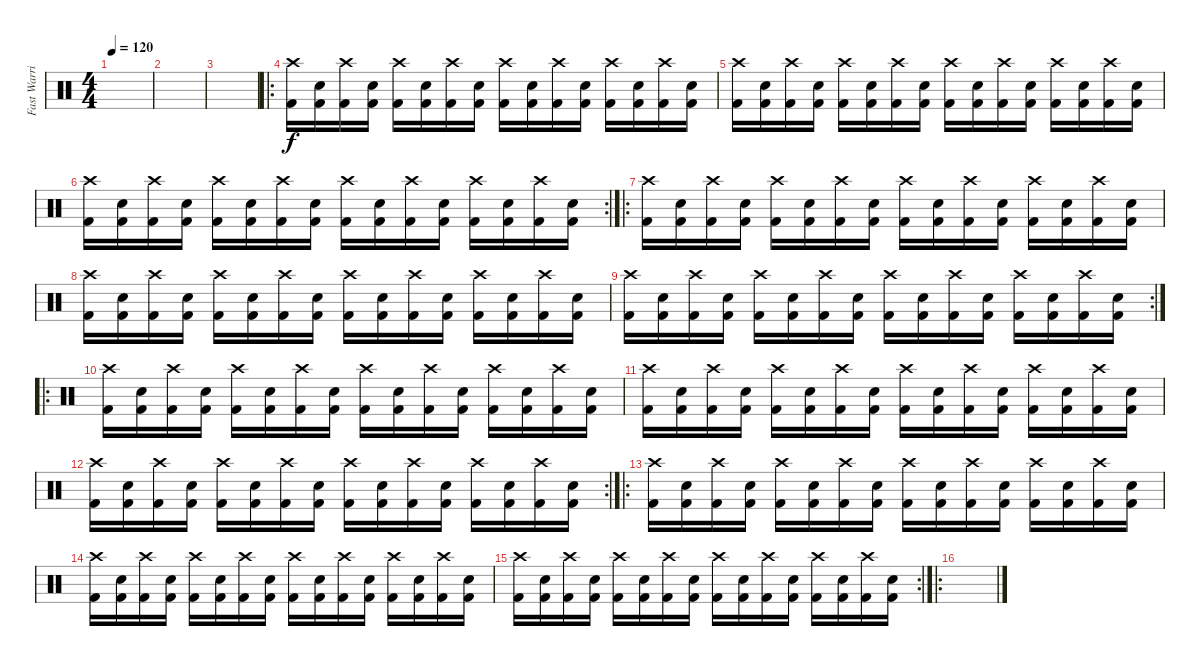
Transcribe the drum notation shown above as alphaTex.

\track ("Fast Warrior" "Fast Warri") {instrument percussion}
\staff {score}
\articulation defaults
\ts (4 4)
\tempo 120
\clef neutral
\ks c
|
|
|
\ro
("Kick (hit) 2" "Crash high (hit)").16 ("Kick (hit) 2" "Electric Snare (hit)").16 ("Kick (hit) 2" "Crash high (hit)").16 ("Kick (hit) 2" "Electric Snare (hit)").16 ("Kick (hit) 2" "Crash high (hit)").16 ("Kick (hit) 2" "Electric Snare (hit)").16 ("Kick (hit) 2" "Crash high (hit)").16 ("Kick (hit) 2" "Electric Snare (hit)").16 ("Kick (hit) 2" "Crash high (hit)").16 ("Kick (hit) 2" "Electric Snare (hit)").16 ("Kick (hit) 2" "Crash high (hit)").16 ("Kick (hit) 2" "Electric Snare (hit)").16 ("Kick (hit) 2" "Crash high (hit)").16 ("Kick (hit) 2" "Electric Snare (hit)").16 ("Kick (hit) 2" "Crash high (hit)").16 ("Kick (hit) 2" "Electric Snare (hit)").16 |
("Kick (hit) 2" "Crash high (hit)").16 ("Kick (hit) 2" "Electric Snare (hit)").16 ("Kick (hit) 2" "Crash high (hit)").16 ("Kick (hit) 2" "Electric Snare (hit)").16 ("Kick (hit) 2" "Crash high (hit)").16 ("Kick (hit) 2" "Electric Snare (hit)").16 ("Kick (hit) 2" "Crash high (hit)").16 ("Kick (hit) 2" "Electric Snare (hit)").16 ("Kick (hit) 2" "Crash high (hit)").16 ("Kick (hit) 2" "Electric Snare (hit)").16 ("Kick (hit) 2" "Crash high (hit)").16 ("Kick (hit) 2" "Electric Snare (hit)").16 ("Kick (hit) 2" "Crash high (hit)").16 ("Kick (hit) 2" "Electric Snare (hit)").16 ("Kick (hit) 2" "Crash high (hit)").16 ("Kick (hit) 2" "Electric Snare (hit)").16 |
\rc 2
("Kick (hit) 2" "Crash high (hit)").16 ("Kick (hit) 2" "Electric Snare (hit)").16 ("Kick (hit) 2" "Crash high (hit)").16 ("Kick (hit) 2" "Electric Snare (hit)").16 ("Kick (hit) 2" "Crash high (hit)").16 ("Kick (hit) 2" "Electric Snare (hit)").16 ("Kick (hit) 2" "Crash high (hit)").16 ("Kick (hit) 2" "Electric Snare (hit)").16 ("Kick (hit) 2" "Crash high (hit)").16 ("Kick (hit) 2" "Electric Snare (hit)").16 ("Kick (hit) 2" "Crash high (hit)").16 ("Kick (hit) 2" "Electric Snare (hit)").16 ("Kick (hit) 2" "Crash high (hit)").16 ("Kick (hit) 2" "Electric Snare (hit)").16 ("Kick (hit) 2" "Crash high (hit)").16 ("Kick (hit) 2" "Electric Snare (hit)").16 |
\ro
("Kick (hit) 2" "Crash high (hit)").16 ("Kick (hit) 2" "Electric Snare (hit)").16 ("Kick (hit) 2" "Crash high (hit)").16 ("Kick (hit) 2" "Electric Snare (hit)").16 ("Kick (hit) 2" "Crash high (hit)").16 ("Kick (hit) 2" "Electric Snare (hit)").16 ("Kick (hit) 2" "Crash high (hit)").16 ("Kick (hit) 2" "Electric Snare (hit)").16 ("Kick (hit) 2" "Crash high (hit)").16 ("Kick (hit) 2" "Electric Snare (hit)").16 ("Kick (hit) 2" "Crash high (hit)").16 ("Kick (hit) 2" "Electric Snare (hit)").16 ("Kick (hit) 2" "Crash high (hit)").16 ("Kick (hit) 2" "Electric Snare (hit)").16 ("Kick (hit) 2" "Crash high (hit)").16 ("Kick (hit) 2" "Electric Snare (hit)").16 |
("Kick (hit) 2" "Crash high (hit)").16 ("Kick (hit) 2" "Electric Snare (hit)").16 ("Kick (hit) 2" "Crash high (hit)").16 ("Kick (hit) 2" "Electric Snare (hit)").16 ("Kick (hit) 2" "Crash high (hit)").16 ("Kick (hit) 2" "Electric Snare (hit)").16 ("Kick (hit) 2" "Crash high (hit)").16 ("Kick (hit) 2" "Electric Snare (hit)").16 ("Kick (hit) 2" "Crash high (hit)").16 ("Kick (hit) 2" "Electric Snare (hit)").16 ("Kick (hit) 2" "Crash high (hit)").16 ("Kick (hit) 2" "Electric Snare (hit)").16 ("Kick (hit) 2" "Crash high (hit)").16 ("Kick (hit) 2" "Electric Snare (hit)").16 ("Kick (hit) 2" "Crash high (hit)").16 ("Kick (hit) 2" "Electric Snare (hit)").16 |
\rc 2
("Kick (hit) 2" "Crash high (hit)").16 ("Kick (hit) 2" "Electric Snare (hit)").16 ("Kick (hit) 2" "Crash high (hit)").16 ("Kick (hit) 2" "Electric Snare (hit)").16 ("Kick (hit) 2" "Crash high (hit)").16 ("Kick (hit) 2" "Electric Snare (hit)").16 ("Kick (hit) 2" "Crash high (hit)").16 ("Kick (hit) 2" "Electric Snare (hit)").16 ("Kick (hit) 2" "Crash high (hit)").16 ("Kick (hit) 2" "Electric Snare (hit)").16 ("Kick (hit) 2" "Crash high (hit)").16 ("Kick (hit) 2" "Electric Snare (hit)").16 ("Kick (hit) 2" "Crash high (hit)").16 ("Kick (hit) 2" "Electric Snare (hit)").16 ("Kick (hit) 2" "Crash high (hit)").16 ("Kick (hit) 2" "Electric Snare (hit)").16 |
\ro
("Kick (hit) 2" "Crash high (hit)").16 ("Kick (hit) 2" "Electric Snare (hit)").16 ("Kick (hit) 2" "Crash high (hit)").16 ("Kick (hit) 2" "Electric Snare (hit)").16 ("Kick (hit) 2" "Crash high (hit)").16 ("Kick (hit) 2" "Electric Snare (hit)").16 ("Kick (hit) 2" "Crash high (hit)").16 ("Kick (hit) 2" "Electric Snare (hit)").16 ("Kick (hit) 2" "Crash high (hit)").16 ("Kick (hit) 2" "Electric Snare (hit)").16 ("Kick (hit) 2" "Crash high (hit)").16 ("Kick (hit) 2" "Electric Snare (hit)").16 ("Kick (hit) 2" "Crash high (hit)").16 ("Kick (hit) 2" "Electric Snare (hit)").16 ("Kick (hit) 2" "Crash high (hit)").16 ("Kick (hit) 2" "Electric Snare (hit)").16 |
("Kick (hit) 2" "Crash high (hit)").16 ("Kick (hit) 2" "Electric Snare (hit)").16 ("Kick (hit) 2" "Crash high (hit)").16 ("Kick (hit) 2" "Electric Snare (hit)").16 ("Kick (hit) 2" "Crash high (hit)").16 ("Kick (hit) 2" "Electric Snare (hit)").16 ("Kick (hit) 2" "Crash high (hit)").16 ("Kick (hit) 2" "Electric Snare (hit)").16 ("Kick (hit) 2" "Crash high (hit)").16 ("Kick (hit) 2" "Electric Snare (hit)").16 ("Kick (hit) 2" "Crash high (hit)").16 ("Kick (hit) 2" "Electric Snare (hit)").16 ("Kick (hit) 2" "Crash high (hit)").16 ("Kick (hit) 2" "Electric Snare (hit)").16 ("Kick (hit) 2" "Crash high (hit)").16 ("Kick (hit) 2" "Electric Snare (hit)").16 |
\rc 2
("Kick (hit) 2" "Crash high (hit)").16 ("Kick (hit) 2" "Electric Snare (hit)").16 ("Kick (hit) 2" "Crash high (hit)").16 ("Kick (hit) 2" "Electric Snare (hit)").16 ("Kick (hit) 2" "Crash high (hit)").16 ("Kick (hit) 2" "Electric Snare (hit)").16 ("Kick (hit) 2" "Crash high (hit)").16 ("Kick (hit) 2" "Electric Snare (hit)").16 ("Kick (hit) 2" "Crash high (hit)").16 ("Kick (hit) 2" "Electric Snare (hit)").16 ("Kick (hit) 2" "Crash high (hit)").16 ("Kick (hit) 2" "Electric Snare (hit)").16 ("Kick (hit) 2" "Crash high (hit)").16 ("Kick (hit) 2" "Electric Snare (hit)").16 ("Kick (hit) 2" "Crash high (hit)").16 ("Kick (hit) 2" "Electric Snare (hit)").16 |
\ro
("Kick (hit) 2" "Crash high (hit)").16 ("Kick (hit) 2" "Electric Snare (hit)").16 ("Kick (hit) 2" "Crash high (hit)").16 ("Kick (hit) 2" "Electric Snare (hit)").16 ("Kick (hit) 2" "Crash high (hit)").16 ("Kick (hit) 2" "Electric Snare (hit)").16 ("Kick (hit) 2" "Crash high (hit)").16 ("Kick (hit) 2" "Electric Snare (hit)").16 ("Kick (hit) 2" "Crash high (hit)").16 ("Kick (hit) 2" "Electric Snare (hit)").16 ("Kick (hit) 2" "Crash high (hit)").16 ("Kick (hit) 2" "Electric Snare (hit)").16 ("Kick (hit) 2" "Crash high (hit)").16 ("Kick (hit) 2" "Electric Snare (hit)").16 ("Kick (hit) 2" "Crash high (hit)").16 ("Kick (hit) 2" "Electric Snare (hit)").16 |
("Kick (hit) 2" "Crash high (hit)").16 ("Kick (hit) 2" "Electric Snare (hit)").16 ("Kick (hit) 2" "Crash high (hit)").16 ("Kick (hit) 2" "Electric Snare (hit)").16 ("Kick (hit) 2" "Crash high (hit)").16 ("Kick (hit) 2" "Electric Snare (hit)").16 ("Kick (hit) 2" "Crash high (hit)").16 ("Kick (hit) 2" "Electric Snare (hit)").16 ("Kick (hit) 2" "Crash high (hit)").16 ("Kick (hit) 2" "Electric Snare (hit)").16 ("Kick (hit) 2" "Crash high (hit)").16 ("Kick (hit) 2" "Electric Snare (hit)").16 ("Kick (hit) 2" "Crash high (hit)").16 ("Kick (hit) 2" "Electric Snare (hit)").16 ("Kick (hit) 2" "Crash high (hit)").16 ("Kick (hit) 2" "Electric Snare (hit)").16 |
\rc 2
("Kick (hit) 2" "Crash high (hit)").16 ("Kick (hit) 2" "Electric Snare (hit)").16 ("Kick (hit) 2" "Crash high (hit)").16 ("Kick (hit) 2" "Electric Snare (hit)").16 ("Kick (hit) 2" "Crash high (hit)").16 ("Kick (hit) 2" "Electric Snare (hit)").16 ("Kick (hit) 2" "Crash high (hit)").16 ("Kick (hit) 2" "Electric Snare (hit)").16 ("Kick (hit) 2" "Crash high (hit)").16 ("Kick (hit) 2" "Electric Snare (hit)").16 ("Kick (hit) 2" "Crash high (hit)").16 ("Kick (hit) 2" "Electric Snare (hit)").16 ("Kick (hit) 2" "Crash high (hit)").16 ("Kick (hit) 2" "Electric Snare (hit)").16 ("Kick (hit) 2" "Crash high (hit)").16 ("Kick (hit) 2" "Electric Snare (hit)").16 |
\ro
